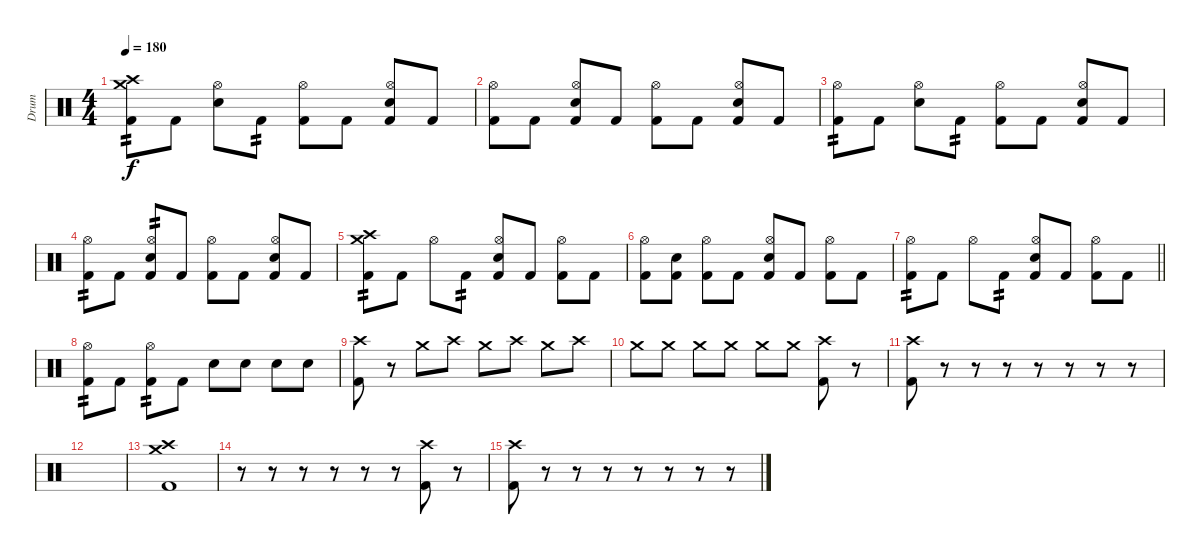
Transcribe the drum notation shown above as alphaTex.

\track ("Drum" "Drum") {instrument percussion}
\staff {score}
\articulation defaults
\ts (4 4)
\tempo 180
\clef neutral
\ks c
("Crash medium (hit)" "Crash high (hit)" "Kick (hit) 2").8{tp 2 dy f} "Kick (hit) 2".8 ("Hi-Hat (open)" "Snare (hit) 2").8 "Kick (hit) 2".8{tp 2} ("Hi-Hat (open)" "Kick (hit) 2").8 "Kick (hit) 2".8 ("Hi-Hat (open)" "Snare (hit) 2" "Kick (hit) 2").8 "Kick (hit) 2".8 |
("Hi-Hat (open)" "Kick (hit) 2").8 "Kick (hit) 2".8 ("Hi-Hat (open)" "Snare (hit) 2" "Kick (hit) 2").8 "Kick (hit) 2".8 ("Hi-Hat (open)" "Kick (hit) 2").8 "Kick (hit) 2".8 ("Hi-Hat (open)" "Snare (hit) 2" "Kick (hit) 2").8 "Kick (hit) 2".8 |
("Hi-Hat (open)" "Kick (hit) 2").8{tp 2} "Kick (hit) 2".8 ("Hi-Hat (open)" "Snare (hit) 2").8 "Kick (hit) 2".8{tp 2} ("Hi-Hat (open)" "Kick (hit) 2").8 "Kick (hit) 2".8 ("Hi-Hat (open)" "Snare (hit) 2" "Kick (hit) 2").8 "Kick (hit) 2".8 |
("Hi-Hat (open)" "Kick (hit) 2").8{tp 2} "Kick (hit) 2".8 ("Hi-Hat (open)" "Snare (hit) 2" "Kick (hit) 2").8{tp 2} "Kick (hit) 2".8 ("Hi-Hat (open)" "Kick (hit) 2").8 "Kick (hit) 2".8 ("Hi-Hat (open)" "Snare (hit) 2" "Kick (hit) 2").8 "Kick (hit) 2".8 |
("Crash medium (hit)" "Crash high (hit)" "Kick (hit) 2").8{tp 2} "Kick (hit) 2".8 "Hi-Hat (open)".8 "Kick (hit) 2".8{tp 2} ("Hi-Hat (open)" "Snare (hit) 2" "Kick (hit) 2").8 "Kick (hit) 2".8 ("Hi-Hat (open)" "Kick (hit) 2").8 "Kick (hit) 2".8 |
("Hi-Hat (open)" "Kick (hit) 2").8 ("Snare (hit) 2" "Kick (hit) 2").8 ("Hi-Hat (open)" "Kick (hit) 2").8 "Kick (hit) 2".8 ("Hi-Hat (open)" "Snare (hit) 2" "Kick (hit) 2").8 "Kick (hit) 2".8 ("Hi-Hat (open)" "Kick (hit) 2").8 "Kick (hit) 2".8 |
\barLineRight lightlight
("Hi-Hat (open)" "Kick (hit) 2").8{tp 2} "Kick (hit) 2".8 "Hi-Hat (open)".8 "Kick (hit) 2".8{tp 2} ("Hi-Hat (open)" "Snare (hit) 2" "Kick (hit) 2").8 "Kick (hit) 2".8 ("Hi-Hat (open)" "Kick (hit) 2").8 "Kick (hit) 2".8 |
\section ("" "")
("Hi-Hat (open)" "Kick (hit) 2").8{tp 2} "Kick (hit) 2".8 ("Hi-Hat (open)" "Kick (hit) 2").8{tp 2} "Kick (hit) 2".8 "Snare (hit) 2".8 "Snare (hit) 2".8 "Snare (hit) 2".8 "Snare (hit) 2".8 |
("Crash high (hit)" "Kick (hit) 2").8 r.8{volume 0} "Crash medium (hit)".8{volume 16} "Crash high (hit)".8 "Crash medium (hit)".8 "Crash high (hit)".8 "Crash medium (hit)".8 "Crash high (hit)".8 |
"Crash medium (hit)".8 "Crash medium (hit)".8 "Crash medium (hit)".8 "Crash medium (hit)".8 "Crash medium (hit)".8 "Crash medium (hit)".8 ("Crash high (hit)" "Kick (hit) 2").8{volume 16} r.8{volume 0} |
("Crash high (hit)" "Kick (hit) 2").8{volume 16} r.8{volume 0} r.8 r.8 r.8 r.8 r.8 r.8 |
|
("Crash high (hit)" "Crash medium (hit)" "Kick (hit) 2").1 |
r.8 r.8 r.8 r.8 r.8 r.8 ("Crash high (hit)" "Kick (hit) 2").8{volume 16} r.8{volume 0} |
("Crash high (hit)" "Kick (hit) 2").8{volume 16} r.8{volume 0} r.8 r.8 r.8 r.8 r.8 r.8
